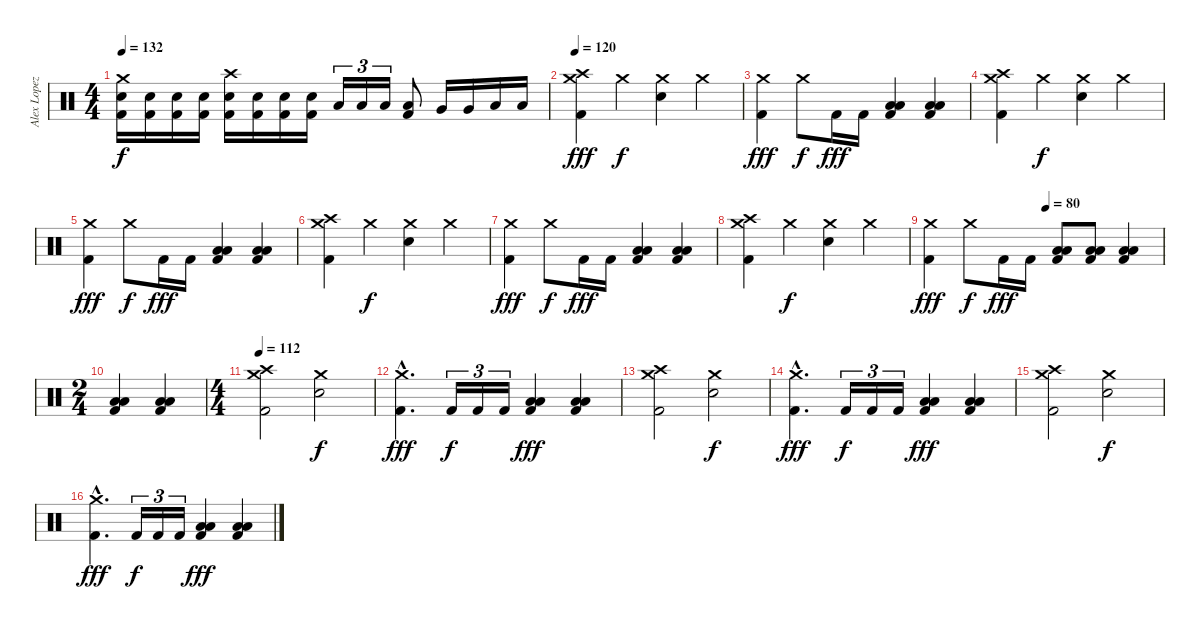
\track ("Alex Lopez" "Alex Lopez") {instrument percussion}
\staff {score}
\articulation defaults
\ts (4 4)
\tempo 132
\clef neutral
\ks c
("Crash medium (hit)" "Snare (hit) 2" "Kick (hit) 2").16{dy f} ("Snare (hit) 2" "Kick (hit) 2").16 ("Snare (hit) 2" "Kick (hit) 2").16 ("Snare (hit) 2" "Kick (hit) 2").16 ("Crash high (hit)" "Snare (hit) 2" "Kick (hit) 2").16 ("Snare (hit) 2" "Kick (hit) 2").16 ("Snare (hit) 2" "Kick (hit) 2").16 ("Snare (hit) 2" "Kick (hit) 2").16 "Low Tom (hit)".16{tu (3 2)} "Low Tom (hit)".16{tu (3 2)} "Low Tom (hit)".16{tu (3 2)} ("Low Tom (hit)" "Kick (hit) 2").8 "Very Low Tom (hit)".16 "Very Low Tom (hit)".16 "Low Floor Tom (hit)".16 "Low Floor Tom (hit)".16 |
\tempo 120
("Crash high (hit)" "Crash medium (hit)" "Kick (hit) 2").4{dy fff} "Crash medium (hit)".4{dy f} ("Crash medium (hit)" "Snare (hit) 2").4 "Crash medium (hit)".4 |
("Crash medium (hit)" "Kick (hit) 2").4{dy fff} "Crash medium (hit)".8{dy f} "Kick (hit) 2".16{dy fff} "Kick (hit) 2".16 ("Low Floor Tom (hit)" "Low Tom (hit)" "Kick (hit) 2").4 ("Low Floor Tom (hit)" "Low Tom (hit)" "Kick (hit) 2").4 |
("Crash high (hit)" "Crash medium (hit)" "Kick (hit) 2").4 "Crash medium (hit)".4{dy f} ("Crash medium (hit)" "Snare (hit) 2").4 "Crash medium (hit)".4 |
("Crash medium (hit)" "Kick (hit) 2").4{dy fff} "Crash medium (hit)".8{dy f} "Kick (hit) 2".16{dy fff} "Kick (hit) 2".16 ("Low Floor Tom (hit)" "Low Tom (hit)" "Kick (hit) 2").4 ("Low Floor Tom (hit)" "Low Tom (hit)" "Kick (hit) 2").4 |
("Crash high (hit)" "Crash medium (hit)" "Kick (hit) 2").4 "Crash medium (hit)".4{dy f} ("Crash medium (hit)" "Snare (hit) 2").4 "Crash medium (hit)".4 |
("Crash medium (hit)" "Kick (hit) 2").4{dy fff} "Crash medium (hit)".8{dy f} "Kick (hit) 2".16{dy fff} "Kick (hit) 2".16 ("Low Floor Tom (hit)" "Low Tom (hit)" "Kick (hit) 2").4 ("Low Floor Tom (hit)" "Low Tom (hit)" "Kick (hit) 2").4 |
("Crash high (hit)" "Crash medium (hit)" "Kick (hit) 2").4 "Crash medium (hit)".4{dy f} ("Crash medium (hit)" "Snare (hit) 2").4 "Crash medium (hit)".4 |
\tempo (80 0.5)
("Crash medium (hit)" "Kick (hit) 2").4{dy fff} "Crash medium (hit)".8{dy f} "Kick (hit) 2".16{dy fff} "Kick (hit) 2".16 ("Low Tom (hit)" "Low Floor Tom (hit)" "Kick (hit) 2").8 ("Low Tom (hit)" "Low Floor Tom (hit)" "Kick (hit) 2").8 ("Low Tom (hit)" "Low Floor Tom (hit)" "Kick (hit) 2").4 |
\ts (2 4)
("Low Tom (hit)" "Low Floor Tom (hit)" "Kick (hit) 2").4 ("Low Tom (hit)" "Low Floor Tom (hit)" "Kick (hit) 2").4 |
\ts (4 4)
\tempo 112
("Crash high (hit)" "Crash medium (hit)" "Kick (hit) 2").2 ("Crash medium (hit)" "Snare (hit) 2").2{dy f} |
("Crash medium (hit)"{hac} "Kick (hit) 2"{hac}).4{d dy fff} "Kick (hit) 2".16{tu (3 2) dy f} "Kick (hit) 2".16{tu (3 2)} "Kick (hit) 2".16{tu (3 2)} ("Low Tom (hit)" "Low Floor Tom (hit)" "Kick (hit) 2").4{dy fff} ("Low Tom (hit)" "Low Floor Tom (hit)" "Kick (hit) 2").4 |
("Crash high (hit)" "Crash medium (hit)" "Kick (hit) 2").2 ("Crash medium (hit)" "Snare (hit) 2").2{dy f} |
("Crash medium (hit)"{hac} "Kick (hit) 2"{hac}).4{d dy fff} "Kick (hit) 2".16{tu (3 2) dy f} "Kick (hit) 2".16{tu (3 2)} "Kick (hit) 2".16{tu (3 2)} ("Low Tom (hit)" "Low Floor Tom (hit)" "Kick (hit) 2").4{dy fff} ("Low Tom (hit)" "Low Floor Tom (hit)" "Kick (hit) 2").4 |
("Crash high (hit)" "Crash medium (hit)" "Kick (hit) 2").2 ("Crash medium (hit)" "Snare (hit) 2").2{dy f} |
("Crash medium (hit)"{hac} "Kick (hit) 2"{hac}).4{d dy fff} "Kick (hit) 2".16{tu (3 2) dy f} "Kick (hit) 2".16{tu (3 2)} "Kick (hit) 2".16{tu (3 2)} ("Low Tom (hit)" "Low Floor Tom (hit)" "Kick (hit) 2").4{dy fff} ("Low Tom (hit)" "Low Floor Tom (hit)" "Kick (hit) 2").4
